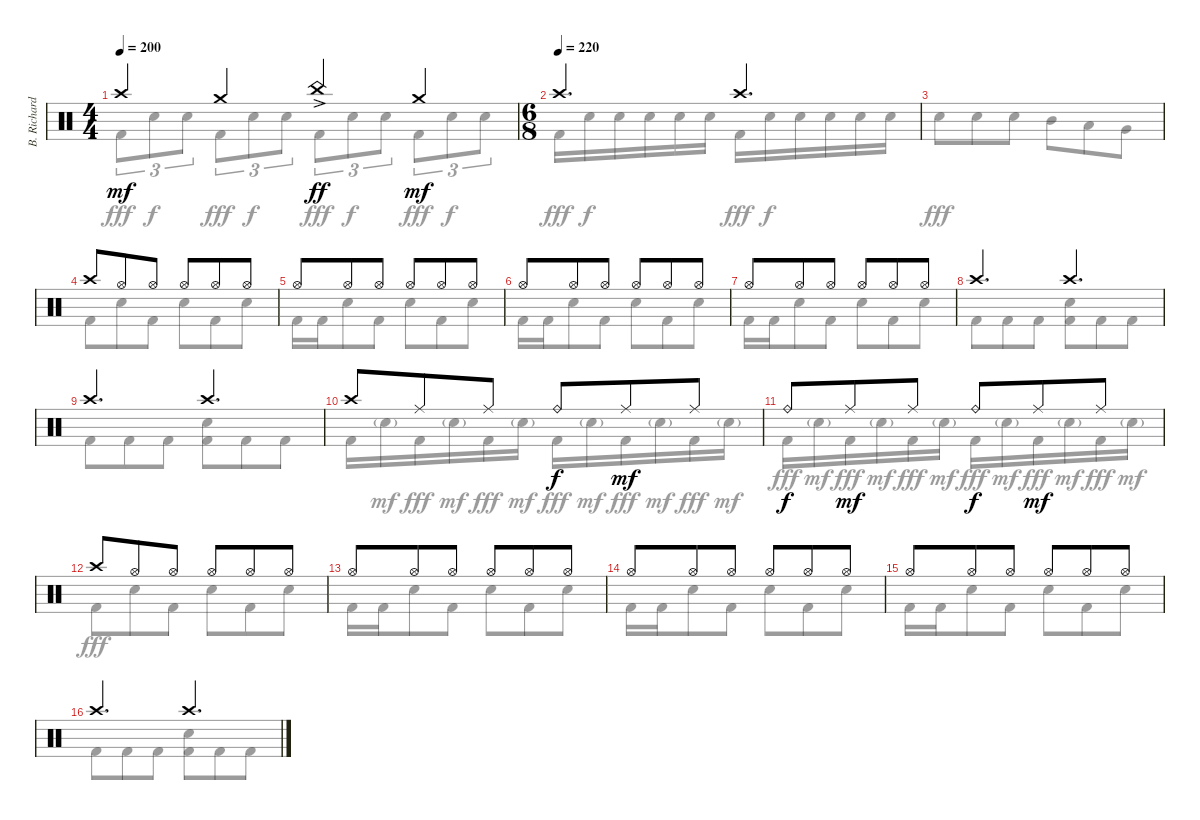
\track ("B. Richardson Drums" "B. Richard") {instrument percussion}
\staff {score}
\articulation defaults
\voice
\ts (4 4)
\tempo 200
\clef neutral
\ks c "Crash high (hit)".4{dy mf} "Crash medium (hit)".4 "China (hit)"{ac}.4{dy ff} "Crash medium (hit)".4{dy mf}
|
\ts (6 8)
\tempo (220)
"Crash high (hit)".4{d} "Crash high (hit)".4{d} |
|
"Crash high (hit)".8 "Hi-Hat (open)".8 "Hi-Hat (open)".8 "Hi-Hat (open)".8 "Hi-Hat (open)".8 "Hi-Hat (open)".8 |
"Hi-Hat (open)".8 "Hi-Hat (open)".8 "Hi-Hat (open)".8 "Hi-Hat (open)".8 "Hi-Hat (open)".8 "Hi-Hat (open)".8 |
"Hi-Hat (open)".8 "Hi-Hat (open)".8 "Hi-Hat (open)".8 "Hi-Hat (open)".8 "Hi-Hat (open)".8 "Hi-Hat (open)".8 |
"Hi-Hat (open)".8 "Hi-Hat (open)".8 "Hi-Hat (open)".8 "Hi-Hat (open)".8 "Hi-Hat (open)".8 "Hi-Hat (open)".8 |
"Crash high (hit)".4{d} "Crash high (hit)".4{d} |
"Crash high (hit)".4{d} "Crash high (hit)".4{d} |
"Crash high (hit)".8 "Ride (middle)".8 "Ride (middle)".8 "Ride (bell)".8{dy f} "Ride (middle)".8{dy mf} "Ride (middle)".8 |
"Ride (bell)".8{dy f} "Ride (middle)".8{dy mf} "Ride (middle)".8 "Ride (bell)".8{dy f} "Ride (middle)".8{dy mf} "Ride (middle)".8 |
"Crash high (hit)".8 "Hi-Hat (open)".8 "Hi-Hat (open)".8 "Hi-Hat (open)".8 "Hi-Hat (open)".8 "Hi-Hat (open)".8 |
"Hi-Hat (open)".8 "Hi-Hat (open)".8 "Hi-Hat (open)".8 "Hi-Hat (open)".8 "Hi-Hat (open)".8 "Hi-Hat (open)".8 |
"Hi-Hat (open)".8 "Hi-Hat (open)".8 "Hi-Hat (open)".8 "Hi-Hat (open)".8 "Hi-Hat (open)".8 "Hi-Hat (open)".8 |
"Hi-Hat (open)".8 "Hi-Hat (open)".8 "Hi-Hat (open)".8 "Hi-Hat (open)".8 "Hi-Hat (open)".8 "Hi-Hat (open)".8 |
"Crash high (hit)".4{d} "Crash high (hit)".4{d}
\voice
\clef neutral
\ottava regular
\simile none
\ks c "Kick (hit) 2".8{tu (3 2) dy fff} "Electric Snare (hit)".8{tu (3 2) dy f} "Electric Snare (hit)".8{tu (3 2)} "Kick (hit) 2".8{tu (3 2) dy fff} "Electric Snare (hit)".8{tu (3 2) dy f} "Electric Snare (hit)".8{tu (3 2)} "Kick (hit) 2".8{tu (3 2) dy fff} "Electric Snare (hit)".8{tu (3 2) dy f} "Electric Snare (hit)".8{tu (3 2)} "Kick (hit) 2".8{tu (3 2) dy fff} "Electric Snare (hit)".8{tu (3 2) dy f} "Electric Snare (hit)".8{tu (3 2)}
|
"Kick (hit) 2".16{dy fff} "Electric Snare (hit)".16{dy f} "Electric Snare (hit)".16 "Electric Snare (hit)".16 "Electric Snare (hit)".16 "Electric Snare (hit)".16 "Kick (hit) 2".16{dy fff} "Electric Snare (hit)".16{dy f} "Electric Snare (hit)".16 "Electric Snare (hit)".16 "Electric Snare (hit)".16 "Electric Snare (hit)".16 |
"Electric Snare (hit)".8{dy fff} "Electric Snare (hit)".8 "Electric Snare (hit)".8 "Mid Tom (hit)".8 "Low Tom (hit)".8 "Very Low Tom (hit)".8 |
"Kick (hit) 2".8 "Electric Snare (hit)".8 "Kick (hit) 2".8 "Electric Snare (hit)".8 "Kick (hit) 2".8 "Electric Snare (hit)".8 |
"Kick (hit) 2".16 "Kick (hit) 2".16 "Electric Snare (hit)".8 "Kick (hit) 2".8 "Electric Snare (hit)".8 "Kick (hit) 2".8 "Electric Snare (hit)".8 |
"Kick (hit) 2".16 "Kick (hit) 2".16 "Electric Snare (hit)".8 "Kick (hit) 2".8 "Electric Snare (hit)".8 "Kick (hit) 2".8 "Electric Snare (hit)".8 |
"Kick (hit) 2".16 "Kick (hit) 2".16 "Electric Snare (hit)".8 "Kick (hit) 2".8 "Electric Snare (hit)".8 "Kick (hit) 2".8 "Electric Snare (hit)".8 |
"Kick (hit) 2".8 "Kick (hit) 2".8 "Kick (hit) 2".8 ("Electric Snare (hit)" "Kick (hit) 2").8 "Kick (hit) 2".8 "Kick (hit) 2".8 |
"Kick (hit) 2".8 "Kick (hit) 2".8 "Kick (hit) 2".8 ("Electric Snare (hit)" "Kick (hit) 2").8 "Kick (hit) 2".8 "Kick (hit) 2".8 |
"Kick (hit) 2".16 "Electric Snare (hit)"{g}.16{dy mf} "Kick (hit) 2".16{dy fff} "Electric Snare (hit)"{g}.16{dy mf} "Kick (hit) 2".16{dy fff} "Electric Snare (hit)"{g}.16{dy mf} "Kick (hit) 2".16{dy fff} "Electric Snare (hit)"{g}.16{dy mf} "Kick (hit) 2".16{dy fff} "Electric Snare (hit)"{g}.16{dy mf} "Kick (hit) 2".16{dy fff} "Electric Snare (hit)"{g}.16{dy mf} |
"Kick (hit) 2".16{dy fff} "Electric Snare (hit)"{g}.16{dy mf} "Kick (hit) 2".16{dy fff} "Electric Snare (hit)"{g}.16{dy mf} "Kick (hit) 2".16{dy fff} "Electric Snare (hit)"{g}.16{dy mf} "Kick (hit) 2".16{dy fff} "Electric Snare (hit)"{g}.16{dy mf} "Kick (hit) 2".16{dy fff} "Electric Snare (hit)"{g}.16{dy mf} "Kick (hit) 2".16{dy fff} "Electric Snare (hit)"{g}.16{dy mf} |
"Kick (hit) 2".8{dy fff} "Electric Snare (hit)".8 "Kick (hit) 2".8 "Electric Snare (hit)".8 "Kick (hit) 2".8 "Electric Snare (hit)".8 |
"Kick (hit) 2".16 "Kick (hit) 2".16 "Electric Snare (hit)".8 "Kick (hit) 2".8 "Electric Snare (hit)".8 "Kick (hit) 2".8 "Electric Snare (hit)".8 |
"Kick (hit) 2".16 "Kick (hit) 2".16 "Electric Snare (hit)".8 "Kick (hit) 2".8 "Electric Snare (hit)".8 "Kick (hit) 2".8 "Electric Snare (hit)".8 |
"Kick (hit) 2".16 "Kick (hit) 2".16 "Electric Snare (hit)".8 "Kick (hit) 2".8 "Electric Snare (hit)".8 "Kick (hit) 2".8 "Electric Snare (hit)".8 |
"Kick (hit) 2".8 "Kick (hit) 2".8 "Kick (hit) 2".8 ("Electric Snare (hit)" "Kick (hit) 2").8 "Kick (hit) 2".8 "Kick (hit) 2".8
